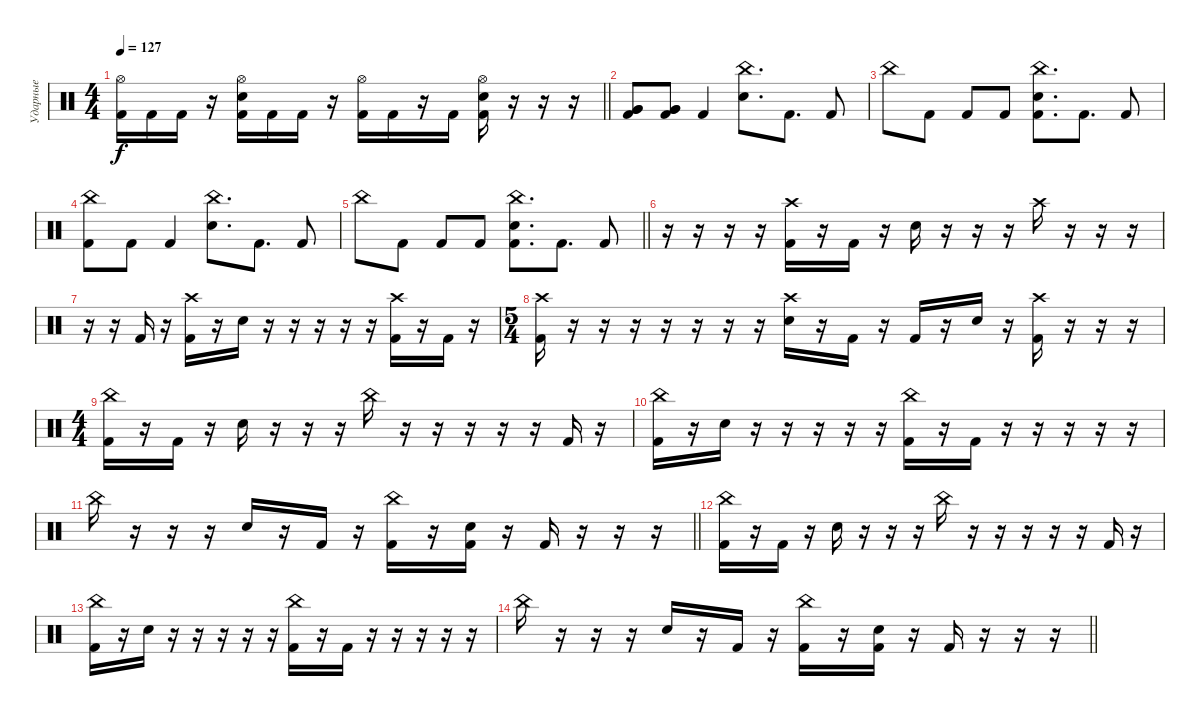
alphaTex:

\track ("Ударные" "Ударные") {instrument percussion}
\staff {score}
\articulation defaults
\ts (4 4)
\tempo 127
\clef neutral
\barLineRight lightlight
\ks c
("Hi-Hat (open)" "Kick (hit) 2").16{dy f} "Kick (hit) 2".16 "Kick (hit) 2".16 r.16 ("Hi-Hat (open)" "Electric Snare (hit)" "Kick (hit) 2").16 "Kick (hit) 2".16 "Kick (hit) 2".16 r.16 ("Hi-Hat (open)" "Kick (hit) 2").16 "Kick (hit) 2".16 r.16 "Kick (hit) 2".16 ("Hi-Hat (open)" "Electric Snare (hit)" "Kick (hit) 2").16 r.16 r.16 r.16 |
\section ("" "")
("Very Low Tom (hit)" "Very Low Tom (hit)" "Kick (hit) 2").8 ("Very Low Tom (hit)" "Very Low Tom (hit)" "Kick (hit) 2").8 "Kick (hit) 2".4 ("China (hit)" "Electric Snare (hit)").8{d} "Kick (hit) 2".8{d} "Kick (hit) 2".8 |
"China (hit)".8 "Kick (hit) 2".8 "Kick (hit) 2".8 "Kick (hit) 2".8 ("China (hit)" "Electric Snare (hit)" "Kick (hit) 2").8{d} "Kick (hit) 2".8{d} "Kick (hit) 2".8 |
("China (hit)" "Kick (hit) 2").8 "Kick (hit) 2".8 "Kick (hit) 2".4 ("China (hit)" "Electric Snare (hit)").8{d} "Kick (hit) 2".8{d} "Kick (hit) 2".8 |
\barLineRight lightlight "China (hit)".8 "Kick (hit) 2".8 "Kick (hit) 2".8 "Kick (hit) 2".8
("China (hit)" "Electric Snare (hit)" "Kick (hit) 2").8{d} "Kick (hit) 2".8{d} "Kick (hit) 2".8 |
\section ("" "")
r.16 r.16 r.16 r.16 ("Crash high (hit)" "Kick (hit) 2").16 r.16 "Kick (hit) 2".16 r.16 "Electric Snare (hit)".16 r.16 r.16 r.16 "Crash high (hit)".16 r.16 r.16 r.16 |
r.16 r.16 "Kick (hit) 2".16 r.16 ("Crash high (hit)" "Kick (hit) 2").16 r.16 "Electric Snare (hit)".16 r.16 r.16 r.16 r.16 r.16 ("Crash high (hit)" "Kick (hit) 2").16 r.16 "Kick (hit) 2".16 r.16 |
\ts (5 4)
("Crash high (hit)" "Kick (hit) 2").16 r.16 r.16 r.16 r.16 r.16 r.16 r.16 ("Crash high (hit)" "Electric Snare (hit)").16 r.16 "Kick (hit) 2".16 r.16 "Kick (hit) 2".16 r.16 "Electric Snare (hit)".16 r.16 ("Crash high (hit)" "Kick (hit) 2").16 r.16 r.16 r.16 |
\ts (4 4)
("China (hit)" "Kick (hit) 2").16 r.16 "Kick (hit) 2".16 r.16 "Electric Snare (hit)".16 r.16 r.16 r.16 "China (hit)".16 r.16 r.16 r.16 r.16 r.16 "Kick (hit) 2".16 r.16 |
("China (hit)" "Kick (hit) 2").16 r.16 "Electric Snare (hit)".16 r.16 r.16 r.16 r.16 r.16 ("China (hit)" "Kick (hit) 2").16 r.16 "Kick (hit) 2".16 r.16 r.16 r.16 r.16 r.16 |
\barLineRight lightlight "China (hit)".16
r.16 r.16 r.16 "Electric Snare (hit)".16 r.16 "Kick (hit) 2".16 r.16 ("China (hit)" "Kick (hit) 2").16 r.16 ("Electric Snare (hit)" "Kick (hit) 2").16 r.16 "Kick (hit) 2".16 r.16 r.16 r.16 |
("China (hit)" "Kick (hit) 2").16 r.16 "Kick (hit) 2".16 r.16 "Electric Snare (hit)".16 r.16 r.16 r.16 "China (hit)".16 r.16 r.16 r.16 r.16 r.16 "Kick (hit) 2".16 r.16 |
("China (hit)" "Kick (hit) 2").16 r.16 "Electric Snare (hit)".16 r.16 r.16 r.16 r.16 r.16 ("China (hit)" "Kick (hit) 2").16 r.16 "Kick (hit) 2".16 r.16 r.16 r.16 r.16 r.16 |
\barLineRight lightlight "China (hit)".16
r.16 r.16 r.16 "Electric Snare (hit)".16 r.16 "Kick (hit) 2".16 r.16 ("China (hit)" "Kick (hit) 2").16 r.16 ("Electric Snare (hit)" "Kick (hit) 2").16 r.16 "Kick (hit) 2".16 r.16 r.16 r.16
